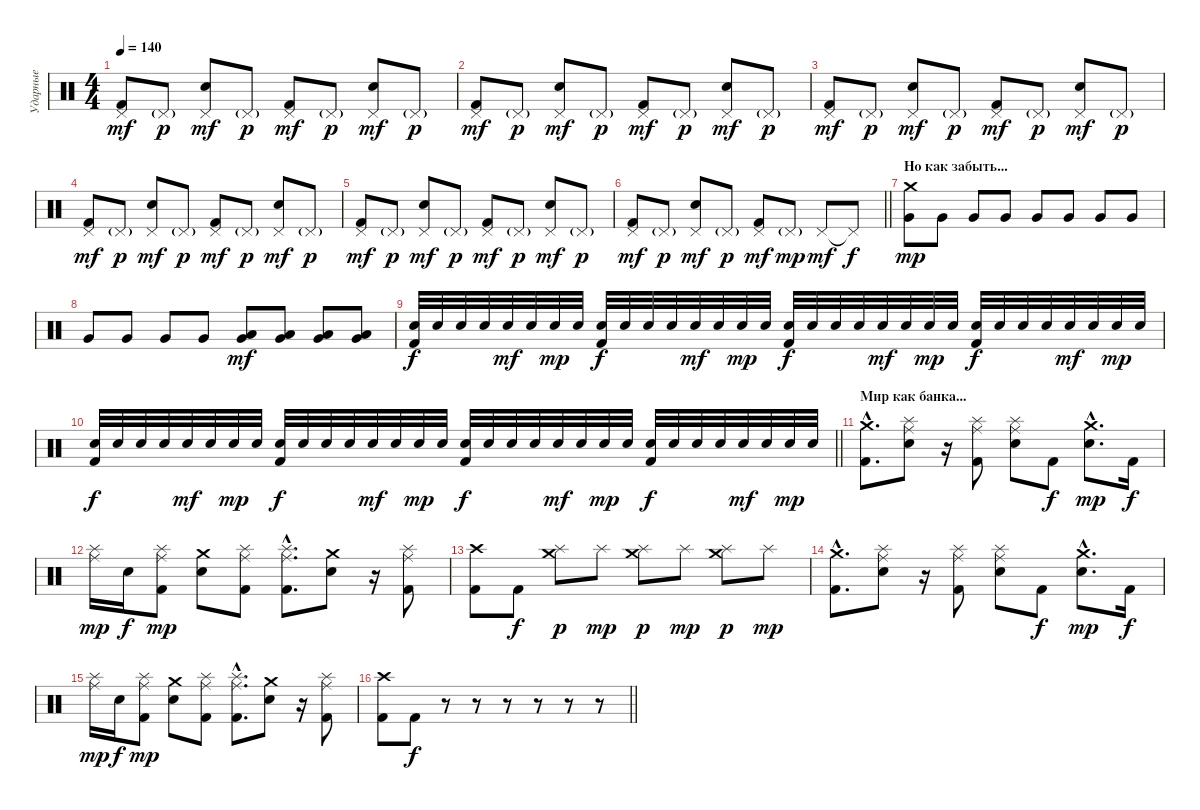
\track ("Ударные" "Ударные") {instrument percussion}
\staff {score}
\articulation defaults
\ts (4 4)
\tempo 140
\clef neutral
\ks c
("Pedal Hi-Hat (hit)" "Kick (hit) 2").8{dy mf} "Pedal Hi-Hat (hit)"{g}.8{dy p} ("Pedal Hi-Hat (hit)" "Snare (hit) 2").8{dy mf} "Pedal Hi-Hat (hit)"{g}.8{dy p} ("Pedal Hi-Hat (hit)" "Kick (hit) 2").8{dy mf} "Pedal Hi-Hat (hit)"{g}.8{dy p} ("Pedal Hi-Hat (hit)" "Snare (hit) 2").8{dy mf} "Pedal Hi-Hat (hit)"{g}.8{dy p} |
("Pedal Hi-Hat (hit)" "Kick (hit) 2").8{dy mf} "Pedal Hi-Hat (hit)"{g}.8{dy p} ("Pedal Hi-Hat (hit)" "Snare (hit) 2").8{dy mf} "Pedal Hi-Hat (hit)"{g}.8{dy p} ("Pedal Hi-Hat (hit)" "Kick (hit) 2").8{dy mf} "Pedal Hi-Hat (hit)"{g}.8{dy p} ("Pedal Hi-Hat (hit)" "Snare (hit) 2").8{dy mf} "Pedal Hi-Hat (hit)"{g}.8{dy p} |
("Pedal Hi-Hat (hit)" "Kick (hit) 2").8{dy mf} "Pedal Hi-Hat (hit)"{g}.8{dy p} ("Pedal Hi-Hat (hit)" "Snare (hit) 2").8{dy mf} "Pedal Hi-Hat (hit)"{g}.8{dy p} ("Pedal Hi-Hat (hit)" "Kick (hit) 2").8{dy mf} "Pedal Hi-Hat (hit)"{g}.8{dy p} ("Pedal Hi-Hat (hit)" "Snare (hit) 2").8{dy mf} "Pedal Hi-Hat (hit)"{g}.8{dy p} |
("Pedal Hi-Hat (hit)" "Kick (hit) 2").8{dy mf} "Pedal Hi-Hat (hit)"{g}.8{dy p} ("Pedal Hi-Hat (hit)" "Snare (hit) 2").8{dy mf} "Pedal Hi-Hat (hit)"{g}.8{dy p} ("Pedal Hi-Hat (hit)" "Kick (hit) 2").8{dy mf} "Pedal Hi-Hat (hit)"{g}.8{dy p} ("Pedal Hi-Hat (hit)" "Snare (hit) 2").8{dy mf} "Pedal Hi-Hat (hit)"{g}.8{dy p} |
("Pedal Hi-Hat (hit)" "Kick (hit) 2").8{dy mf} "Pedal Hi-Hat (hit)"{g}.8{dy p} ("Pedal Hi-Hat (hit)" "Snare (hit) 2").8{dy mf} "Pedal Hi-Hat (hit)"{g}.8{dy p} ("Pedal Hi-Hat (hit)" "Kick (hit) 2").8{dy mf} "Pedal Hi-Hat (hit)"{g}.8{dy p} ("Pedal Hi-Hat (hit)" "Snare (hit) 2").8{dy mf} "Pedal Hi-Hat (hit)"{g}.8{dy p} |
\barLineRight lightlight
("Pedal Hi-Hat (hit)" "Kick (hit) 2").8{dy mf} "Pedal Hi-Hat (hit)"{g}.8{dy p} ("Pedal Hi-Hat (hit)" "Snare (hit) 2").8{dy mf} "Pedal Hi-Hat (hit)"{g}.8{dy p} ("Pedal Hi-Hat (hit)" "Kick (hit) 2").8{dy mf} "Pedal Hi-Hat (hit)"{g}.8{dy mp} "Pedal Hi-Hat (hit)".8{dy mf} "Pedal Hi-Hat (hit)"{t}.8{dy f} |
\section ("" "Но как забыть...")
("Crash medium (hit)" "Very Low Tom (hit)").8{dy mp} "Very Low Tom (hit)".8 "Very Low Tom (hit)".8 "Very Low Tom (hit)".8 "Very Low Tom (hit)".8 "Very Low Tom (hit)".8 "Very Low Tom (hit)".8 "Very Low Tom (hit)".8 |
"Very Low Tom (hit)".8 "Very Low Tom (hit)".8 "Very Low Tom (hit)".8 "Very Low Tom (hit)".8 ("Very Low Tom (hit)" "Low Floor Tom (hit)").8{dy mf} ("Very Low Tom (hit)" "Low Floor Tom (hit)").8 ("Very Low Tom (hit)" "Low Floor Tom (hit)").8 ("Very Low Tom (hit)" "Low Floor Tom (hit)").8 |
("Snare (hit) 2" "Kick (hit) 2").32{dy f} "Snare (hit) 2".32 "Snare (hit) 2".32 "Snare (hit) 2".32 "Snare (hit) 2".32{dy mf} "Snare (hit) 2".32 "Snare (hit) 2".32{dy mp} "Snare (hit) 2".32 ("Snare (hit) 2" "Kick (hit) 2").32{dy f} "Snare (hit) 2".32 "Snare (hit) 2".32 "Snare (hit) 2".32 "Snare (hit) 2".32{dy mf} "Snare (hit) 2".32 "Snare (hit) 2".32{dy mp} "Snare (hit) 2".32 ("Snare (hit) 2" "Kick (hit) 2").32{dy f} "Snare (hit) 2".32 "Snare (hit) 2".32 "Snare (hit) 2".32 "Snare (hit) 2".32{dy mf} "Snare (hit) 2".32 "Snare (hit) 2".32{dy mp} "Snare (hit) 2".32 ("Snare (hit) 2" "Kick (hit) 2").32{dy f} "Snare (hit) 2".32 "Snare (hit) 2".32 "Snare (hit) 2".32 "Snare (hit) 2".32{dy mf} "Snare (hit) 2".32 "Snare (hit) 2".32{dy mp} "Snare (hit) 2".32 |
\barLineRight lightlight
("Snare (hit) 2" "Kick (hit) 2").32{dy f} "Snare (hit) 2".32 "Snare (hit) 2".32 "Snare (hit) 2".32 "Snare (hit) 2".32{dy mf} "Snare (hit) 2".32 "Snare (hit) 2".32{dy mp} "Snare (hit) 2".32 ("Snare (hit) 2" "Kick (hit) 2").32{dy f} "Snare (hit) 2".32 "Snare (hit) 2".32 "Snare (hit) 2".32 "Snare (hit) 2".32{dy mf} "Snare (hit) 2".32 "Snare (hit) 2".32{dy mp} "Snare (hit) 2".32 ("Snare (hit) 2" "Kick (hit) 2").32{dy f} "Snare (hit) 2".32 "Snare (hit) 2".32 "Snare (hit) 2".32 "Snare (hit) 2".32{dy mf} "Snare (hit) 2".32 "Snare (hit) 2".32{dy mp} "Snare (hit) 2".32 ("Snare (hit) 2" "Kick (hit) 2").32{dy f} "Snare (hit) 2".32 "Snare (hit) 2".32 "Snare (hit) 2".32 "Snare (hit) 2".32{dy mf} "Snare (hit) 2".32 "Snare (hit) 2".32{dy mp} "Snare (hit) 2".32 |
\section ("" "Мир как банка...")
("Crash medium (hit)"{hac} "Kick (hit) 2"{hac}).8{d} ("Splash (hit)" "Ride (middle)" "Snare (hit) 2").8 r.16 ("Splash (hit)" "Ride (middle)" "Kick (hit) 2").8 ("Splash (hit)" "Ride (middle)" "Snare (hit) 2").8 "Kick (hit) 2".8{dy f} ("Crash medium (hit)"{hac} "Snare (hit) 2"{hac}).8{d dy mp} "Kick (hit) 2".16{dy f} |
("Splash (hit)" "Ride (middle)").16{dy mp} "Snare (hit) 2".16{dy f} ("Splash (hit)" "Ride (middle)" "Kick (hit) 2").8{dy mp} ("Crash medium (hit)" "Snare (hit) 2").8 ("Splash (hit)" "Ride (middle)" "Kick (hit) 2").8 ("Splash (hit)"{hac} "Ride (middle)"{hac} "Kick (hit) 2"{hac}).8{d} ("Crash medium (hit)" "Snare (hit) 2").8 r.16 ("Splash (hit)" "Ride (middle)" "Kick (hit) 2").8 |
("Crash high (hit)" "Kick (hit) 2").8 "Kick (hit) 2".8{dy f} ("Splash (hit)" "Crash medium (hit)").8{dy p} "Splash (hit)".8{dy mp} ("Splash (hit)" "Crash medium (hit)").8{dy p} "Splash (hit)".8{dy mp} ("Splash (hit)" "Crash medium (hit)").8{dy p} "Splash (hit)".8{dy mp} |
("Crash medium (hit)"{hac} "Kick (hit) 2"{hac}).8{d} ("Splash (hit)" "Ride (middle)" "Snare (hit) 2").8 r.16 ("Splash (hit)" "Ride (middle)" "Kick (hit) 2").8 ("Splash (hit)" "Ride (middle)" "Snare (hit) 2").8 "Kick (hit) 2".8{dy f} ("Crash medium (hit)"{hac} "Snare (hit) 2"{hac}).8{d dy mp} "Kick (hit) 2".16{dy f} |
("Splash (hit)" "Ride (middle)").16{dy mp} "Snare (hit) 2".16{dy f} ("Splash (hit)" "Ride (middle)" "Kick (hit) 2").8{dy mp} ("Crash medium (hit)" "Snare (hit) 2").8 ("Splash (hit)" "Ride (middle)" "Kick (hit) 2").8 ("Splash (hit)"{hac} "Ride (middle)"{hac} "Kick (hit) 2"{hac}).8{d} ("Crash medium (hit)" "Snare (hit) 2").8 r.16 ("Splash (hit)" "Ride (middle)" "Kick (hit) 2").8 |
\barLineRight lightlight
("Crash high (hit)" "Kick (hit) 2").8 "Kick (hit) 2".8{dy f} r.8 r.8 r.8 r.8 r.8 r.8
